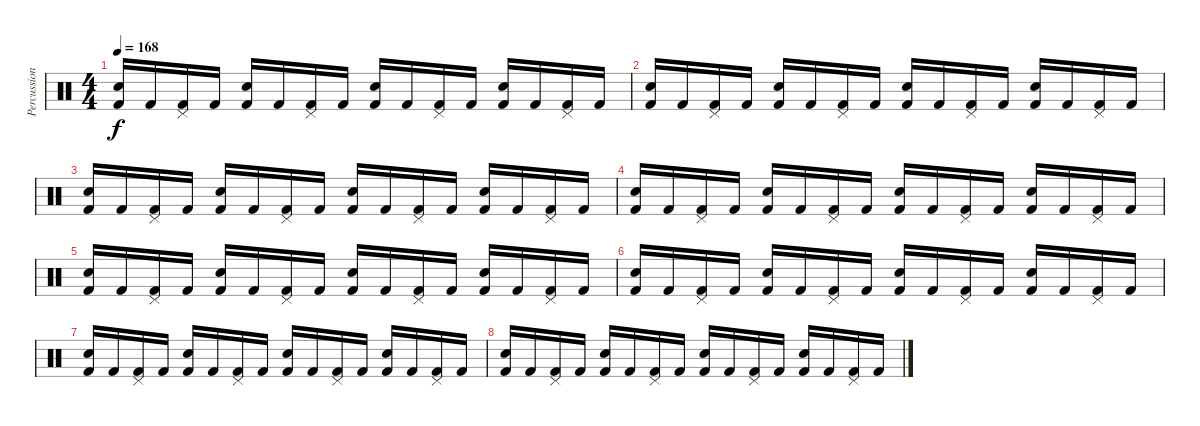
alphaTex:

\track ("Percussion" "Percussion") {instrument percussion}
\staff {score}
\articulation defaults
\ts (4 4)
\tempo 168
\clef neutral
\ks c
("Electric Snare (hit)" "Kick (hit) 2").16{dy f} "Kick (hit) 2".16 ("Pedal Hi-Hat (hit)" "Kick (hit) 2").16 "Kick (hit) 2".16 ("Electric Snare (hit)" "Kick (hit) 2").16 "Kick (hit) 2".16 ("Pedal Hi-Hat (hit)" "Kick (hit) 2").16 "Kick (hit) 2".16 ("Electric Snare (hit)" "Kick (hit) 2").16 "Kick (hit) 2".16 ("Pedal Hi-Hat (hit)" "Kick (hit) 2").16 "Kick (hit) 2".16 ("Electric Snare (hit)" "Kick (hit) 2").16 "Kick (hit) 2".16 ("Pedal Hi-Hat (hit)" "Kick (hit) 2").16 "Kick (hit) 2".16 |
("Electric Snare (hit)" "Kick (hit) 2").16 "Kick (hit) 2".16 ("Pedal Hi-Hat (hit)" "Kick (hit) 2").16 "Kick (hit) 2".16 ("Electric Snare (hit)" "Kick (hit) 2").16 "Kick (hit) 2".16 ("Pedal Hi-Hat (hit)" "Kick (hit) 2").16 "Kick (hit) 2".16 ("Electric Snare (hit)" "Kick (hit) 2").16 "Kick (hit) 2".16 ("Pedal Hi-Hat (hit)" "Kick (hit) 2").16 "Kick (hit) 2".16 ("Electric Snare (hit)" "Kick (hit) 2").16 "Kick (hit) 2".16 ("Pedal Hi-Hat (hit)" "Kick (hit) 2").16 "Kick (hit) 2".16 |
("Electric Snare (hit)" "Kick (hit) 2").16 "Kick (hit) 2".16 ("Pedal Hi-Hat (hit)" "Kick (hit) 2").16 "Kick (hit) 2".16 ("Electric Snare (hit)" "Kick (hit) 2").16 "Kick (hit) 2".16 ("Pedal Hi-Hat (hit)" "Kick (hit) 2").16 "Kick (hit) 2".16 ("Electric Snare (hit)" "Kick (hit) 2").16 "Kick (hit) 2".16 ("Pedal Hi-Hat (hit)" "Kick (hit) 2").16 "Kick (hit) 2".16 ("Electric Snare (hit)" "Kick (hit) 2").16 "Kick (hit) 2".16 ("Pedal Hi-Hat (hit)" "Kick (hit) 2").16 "Kick (hit) 2".16 |
("Electric Snare (hit)" "Kick (hit) 2").16 "Kick (hit) 2".16 ("Pedal Hi-Hat (hit)" "Kick (hit) 2").16 "Kick (hit) 2".16 ("Electric Snare (hit)" "Kick (hit) 2").16 "Kick (hit) 2".16 ("Pedal Hi-Hat (hit)" "Kick (hit) 2").16 "Kick (hit) 2".16 ("Electric Snare (hit)" "Kick (hit) 2").16 "Kick (hit) 2".16 ("Pedal Hi-Hat (hit)" "Kick (hit) 2").16 "Kick (hit) 2".16 ("Electric Snare (hit)" "Kick (hit) 2").16 "Kick (hit) 2".16 ("Pedal Hi-Hat (hit)" "Kick (hit) 2").16 "Kick (hit) 2".16 |
("Electric Snare (hit)" "Kick (hit) 2").16 "Kick (hit) 2".16 ("Pedal Hi-Hat (hit)" "Kick (hit) 2").16 "Kick (hit) 2".16 ("Electric Snare (hit)" "Kick (hit) 2").16 "Kick (hit) 2".16 ("Pedal Hi-Hat (hit)" "Kick (hit) 2").16 "Kick (hit) 2".16 ("Electric Snare (hit)" "Kick (hit) 2").16 "Kick (hit) 2".16 ("Pedal Hi-Hat (hit)" "Kick (hit) 2").16 "Kick (hit) 2".16 ("Electric Snare (hit)" "Kick (hit) 2").16 "Kick (hit) 2".16 ("Pedal Hi-Hat (hit)" "Kick (hit) 2").16 "Kick (hit) 2".16 |
("Electric Snare (hit)" "Kick (hit) 2").16 "Kick (hit) 2".16 ("Pedal Hi-Hat (hit)" "Kick (hit) 2").16 "Kick (hit) 2".16 ("Electric Snare (hit)" "Kick (hit) 2").16 "Kick (hit) 2".16 ("Pedal Hi-Hat (hit)" "Kick (hit) 2").16 "Kick (hit) 2".16 ("Electric Snare (hit)" "Kick (hit) 2").16 "Kick (hit) 2".16 ("Pedal Hi-Hat (hit)" "Kick (hit) 2").16 "Kick (hit) 2".16 ("Electric Snare (hit)" "Kick (hit) 2").16 "Kick (hit) 2".16 ("Pedal Hi-Hat (hit)" "Kick (hit) 2").16 "Kick (hit) 2".16 |
("Electric Snare (hit)" "Kick (hit) 2").16 "Kick (hit) 2".16 ("Pedal Hi-Hat (hit)" "Kick (hit) 2").16 "Kick (hit) 2".16 ("Electric Snare (hit)" "Kick (hit) 2").16 "Kick (hit) 2".16 ("Pedal Hi-Hat (hit)" "Kick (hit) 2").16 "Kick (hit) 2".16 ("Electric Snare (hit)" "Kick (hit) 2").16 "Kick (hit) 2".16 ("Pedal Hi-Hat (hit)" "Kick (hit) 2").16 "Kick (hit) 2".16 ("Electric Snare (hit)" "Kick (hit) 2").16 "Kick (hit) 2".16 ("Pedal Hi-Hat (hit)" "Kick (hit) 2").16 "Kick (hit) 2".16 |
("Electric Snare (hit)" "Kick (hit) 2").16 "Kick (hit) 2".16 ("Pedal Hi-Hat (hit)" "Kick (hit) 2").16 "Kick (hit) 2".16 ("Electric Snare (hit)" "Kick (hit) 2").16 "Kick (hit) 2".16 ("Pedal Hi-Hat (hit)" "Kick (hit) 2").16 "Kick (hit) 2".16 ("Electric Snare (hit)" "Kick (hit) 2").16 "Kick (hit) 2".16 ("Pedal Hi-Hat (hit)" "Kick (hit) 2").16 "Kick (hit) 2".16 ("Electric Snare (hit)" "Kick (hit) 2").16 "Kick (hit) 2".16 ("Pedal Hi-Hat (hit)" "Kick (hit) 2").16 "Kick (hit) 2".16
